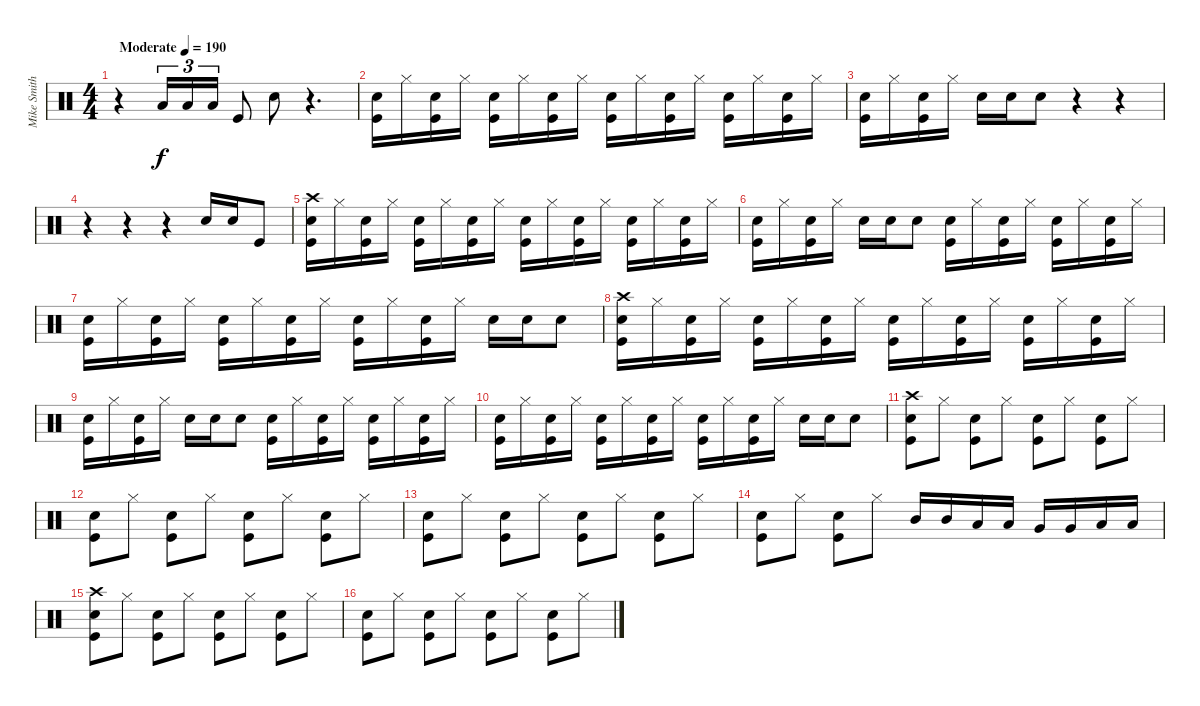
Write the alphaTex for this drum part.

\track ("Mike Smith" "Mike Smith") {instrument percussion}
\staff
\articulation defaults
\ts (4 4)
\tempo (190 "Moderate")
\clef neutral
\ks c
r.4{dy f} "Low Floor Tom (hit)".16{tu (3 2)} "Low Floor Tom (hit)".16{tu (3 2)} "Low Floor Tom (hit)".16{tu (3 2)} "Kick (hit)".8 "Snare (hit) 2".8 r.4{d} |
("Snare (hit) 2" "Kick (hit)").16 "Hi-Hat (closed)".16 ("Snare (hit) 2" "Kick (hit)").16 "Hi-Hat (closed)".16 ("Snare (hit) 2" "Kick (hit)").16 "Hi-Hat (closed)".16 ("Snare (hit) 2" "Kick (hit)").16 "Hi-Hat (closed)".16 ("Snare (hit) 2" "Kick (hit)").16 "Hi-Hat (closed)".16 ("Snare (hit) 2" "Kick (hit)").16 "Hi-Hat (closed)".16 ("Snare (hit) 2" "Kick (hit)").16 "Hi-Hat (closed)".16 ("Snare (hit) 2" "Kick (hit)").16 "Hi-Hat (closed)".16 |
("Snare (hit) 2" "Kick (hit)").16 "Hi-Hat (closed)".16 ("Snare (hit) 2" "Kick (hit)").16 "Hi-Hat (closed)".16 "Snare (hit) 2".16 "Snare (hit) 2".16 "Snare (hit) 2".8 r.4 r.4 |
r.4 r.4 r.4 "Snare (hit) 2".16 "Snare (hit) 2".16 "Kick (hit)".8 |
("Crash high (hit)" "Snare (hit) 2" "Kick (hit)").16 "Hi-Hat (closed)".16 ("Snare (hit) 2" "Kick (hit)").16 "Hi-Hat (closed)".16 ("Snare (hit) 2" "Kick (hit)").16 "Hi-Hat (closed)".16 ("Snare (hit) 2" "Kick (hit)").16 "Hi-Hat (closed)".16 ("Snare (hit) 2" "Kick (hit)").16 "Hi-Hat (closed)".16 ("Snare (hit) 2" "Kick (hit)").16 "Hi-Hat (closed)".16 ("Snare (hit) 2" "Kick (hit)").16 "Hi-Hat (closed)".16 ("Snare (hit) 2" "Kick (hit)").16 "Hi-Hat (closed)".16 |
("Snare (hit) 2" "Kick (hit)").16 "Hi-Hat (closed)".16 ("Snare (hit) 2" "Kick (hit)").16 "Hi-Hat (closed)".16 "Snare (hit) 2".16 "Snare (hit) 2".16 "Snare (hit) 2".8 ("Snare (hit) 2" "Kick (hit)").16 "Hi-Hat (closed)".16 ("Snare (hit) 2" "Kick (hit)").16 "Hi-Hat (closed)".16 ("Snare (hit) 2" "Kick (hit)").16 "Hi-Hat (closed)".16 ("Snare (hit) 2" "Kick (hit)").16 "Hi-Hat (closed)".16 |
("Snare (hit) 2" "Kick (hit)").16 "Hi-Hat (closed)".16 ("Snare (hit) 2" "Kick (hit)").16 "Hi-Hat (closed)".16 ("Snare (hit) 2" "Kick (hit)").16 "Hi-Hat (closed)".16 ("Snare (hit) 2" "Kick (hit)").16 "Hi-Hat (closed)".16 ("Snare (hit) 2" "Kick (hit)").16 "Hi-Hat (closed)".16 ("Snare (hit) 2" "Kick (hit)").16 "Hi-Hat (closed)".16 "Snare (hit) 2".16 "Snare (hit) 2".16 "Snare (hit) 2".8 |
("Crash high (hit)" "Snare (hit) 2" "Kick (hit)").16 "Hi-Hat (closed)".16 ("Snare (hit) 2" "Kick (hit)").16 "Hi-Hat (closed)".16 ("Snare (hit) 2" "Kick (hit)").16 "Hi-Hat (closed)".16 ("Snare (hit) 2" "Kick (hit)").16 "Hi-Hat (closed)".16 ("Snare (hit) 2" "Kick (hit)").16 "Hi-Hat (closed)".16 ("Snare (hit) 2" "Kick (hit)").16 "Hi-Hat (closed)".16 ("Snare (hit) 2" "Kick (hit)").16 "Hi-Hat (closed)".16 ("Snare (hit) 2" "Kick (hit)").16 "Hi-Hat (closed)".16 |
("Snare (hit) 2" "Kick (hit)").16 "Hi-Hat (closed)".16 ("Snare (hit) 2" "Kick (hit)").16 "Hi-Hat (closed)".16 "Snare (hit) 2".16 "Snare (hit) 2".16 "Snare (hit) 2".8 ("Snare (hit) 2" "Kick (hit)").16 "Hi-Hat (closed)".16 ("Snare (hit) 2" "Kick (hit)").16 "Hi-Hat (closed)".16 ("Snare (hit) 2" "Kick (hit)").16 "Hi-Hat (closed)".16 ("Snare (hit) 2" "Kick (hit)").16 "Hi-Hat (closed)".16 |
("Snare (hit) 2" "Kick (hit)").16 "Hi-Hat (closed)".16 ("Snare (hit) 2" "Kick (hit)").16 "Hi-Hat (closed)".16 ("Snare (hit) 2" "Kick (hit)").16 "Hi-Hat (closed)".16 ("Snare (hit) 2" "Kick (hit)").16 "Hi-Hat (closed)".16 ("Snare (hit) 2" "Kick (hit)").16 "Hi-Hat (closed)".16 ("Snare (hit) 2" "Kick (hit)").16 "Hi-Hat (closed)".16 "Snare (hit) 2".16 "Snare (hit) 2".16 "Snare (hit) 2".8 |
("Crash high (hit)" "Snare (hit) 2" "Kick (hit)").8 "Hi-Hat (closed)".8 ("Snare (hit) 2" "Kick (hit)").8 "Hi-Hat (closed)".8 ("Snare (hit) 2" "Kick (hit)").8 "Hi-Hat (closed)".8 ("Snare (hit) 2" "Kick (hit)").8 "Hi-Hat (closed)".8 |
("Snare (hit) 2" "Kick (hit)").8 "Hi-Hat (closed)".8 ("Snare (hit) 2" "Kick (hit)").8 "Hi-Hat (closed)".8 ("Snare (hit) 2" "Kick (hit)").8 "Hi-Hat (closed)".8 ("Snare (hit) 2" "Kick (hit)").8 "Hi-Hat (closed)".8 |
("Snare (hit) 2" "Kick (hit)").8 "Hi-Hat (closed)".8 ("Snare (hit) 2" "Kick (hit)").8 "Hi-Hat (closed)".8 ("Snare (hit) 2" "Kick (hit)").8 "Hi-Hat (closed)".8 ("Snare (hit) 2" "Kick (hit)").8 "Hi-Hat (closed)".8 |
("Snare (hit) 2" "Kick (hit)").8 "Hi-Hat (closed)".8 ("Snare (hit) 2" "Kick (hit)").8 "Hi-Hat (closed)".8 "Mid Tom (hit)".16 "Mid Tom (hit)".16 "Low Tom (hit)".16 "Low Tom (hit)".16 "Very Low Tom (hit)".16 "Very Low Tom (hit)".16 "Low Floor Tom (hit)".16 "Low Floor Tom (hit)".16 |
("Crash high (hit)" "Snare (hit) 2" "Kick (hit)").8 "Hi-Hat (closed)".8 ("Snare (hit) 2" "Kick (hit)").8 "Hi-Hat (closed)".8 ("Snare (hit) 2" "Kick (hit)").8 "Hi-Hat (closed)".8 ("Snare (hit) 2" "Kick (hit)").8 "Hi-Hat (closed)".8 |
("Snare (hit) 2" "Kick (hit)").8 "Hi-Hat (closed)".8 ("Snare (hit) 2" "Kick (hit)").8 "Hi-Hat (closed)".8 ("Snare (hit) 2" "Kick (hit)").8 "Hi-Hat (closed)".8 ("Snare (hit) 2" "Kick (hit)").8 "Hi-Hat (closed)".8
